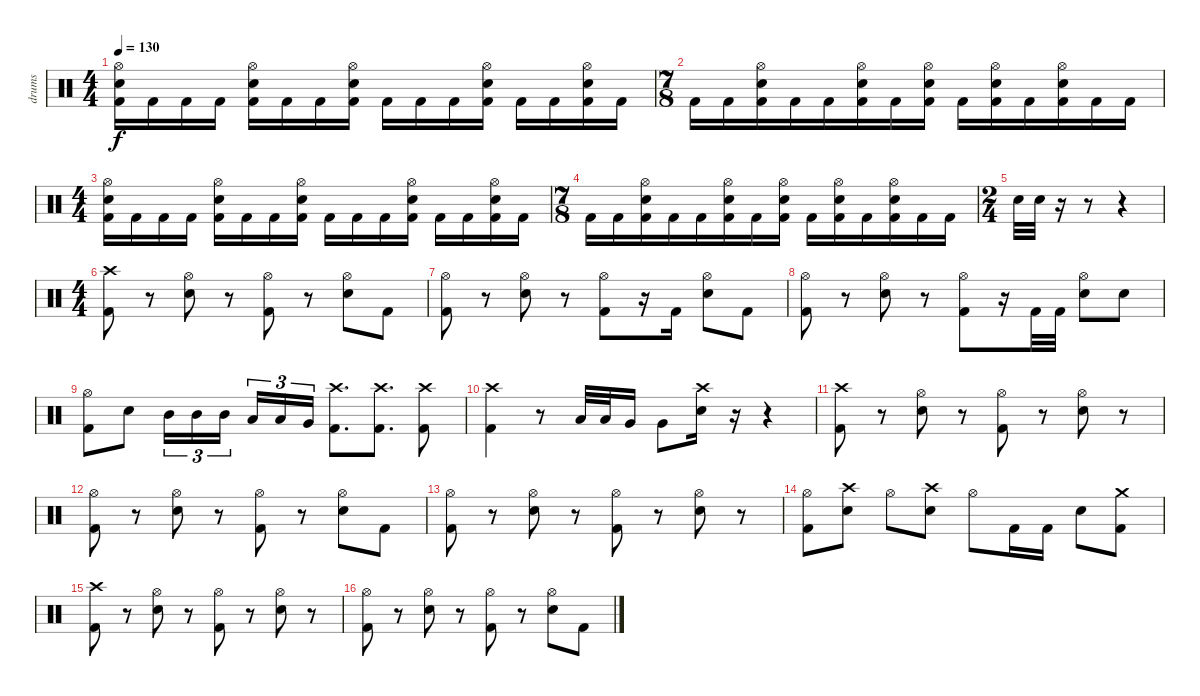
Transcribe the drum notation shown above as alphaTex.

\track ("drums" "drums") {instrument percussion}
\staff {score}
\articulation defaults
\ts (4 4)
\tempo 130
\clef neutral
\ks c
("Hi-Hat (open)" "Snare (hit) 2" "Kick (hit) 2").16{dy f} "Kick (hit) 2".16 "Kick (hit) 2".16 "Kick (hit) 2".16 ("Hi-Hat (open)" "Snare (hit) 2" "Kick (hit) 2").16 "Kick (hit) 2".16 "Kick (hit) 2".16 ("Hi-Hat (open)" "Snare (hit) 2" "Kick (hit) 2").16 "Kick (hit) 2".16 "Kick (hit) 2".16 "Kick (hit) 2".16 ("Hi-Hat (open)" "Snare (hit) 2" "Kick (hit) 2").16 "Kick (hit) 2".16 "Kick (hit) 2".16 ("Hi-Hat (open)" "Snare (hit) 2" "Kick (hit) 2").16 "Kick (hit) 2".16 |
\ts (7 8)
"Kick (hit) 2".16 "Kick (hit) 2".16 ("Hi-Hat (open)" "Snare (hit) 2" "Kick (hit) 2").16 "Kick (hit) 2".16 "Kick (hit) 2".16 ("Hi-Hat (open)" "Kick (hit) 2" "Snare (hit) 2").16 "Kick (hit) 2".16 ("Hi-Hat (open)" "Kick (hit) 2" "Snare (hit) 2").16 "Kick (hit) 2".16 ("Hi-Hat (open)" "Kick (hit) 2" "Snare (hit) 2").16 "Kick (hit) 2".16 ("Hi-Hat (open)" "Kick (hit) 2" "Snare (hit) 2").16 "Kick (hit) 2".16 "Kick (hit) 2".16 |
\ts (4 4)
("Hi-Hat (open)" "Snare (hit) 2" "Kick (hit) 2").16 "Kick (hit) 2".16 "Kick (hit) 2".16 "Kick (hit) 2".16 ("Hi-Hat (open)" "Snare (hit) 2" "Kick (hit) 2").16 "Kick (hit) 2".16 "Kick (hit) 2".16 ("Hi-Hat (open)" "Snare (hit) 2" "Kick (hit) 2").16 "Kick (hit) 2".16 "Kick (hit) 2".16 "Kick (hit) 2".16 ("Hi-Hat (open)" "Snare (hit) 2" "Kick (hit) 2").16 "Kick (hit) 2".16 "Kick (hit) 2".16 ("Hi-Hat (open)" "Snare (hit) 2" "Kick (hit) 2").16 "Kick (hit) 2".16 |
\ts (7 8)
"Kick (hit) 2".16 "Kick (hit) 2".16 ("Hi-Hat (open)" "Snare (hit) 2" "Kick (hit) 2").16 "Kick (hit) 2".16 "Kick (hit) 2".16 ("Hi-Hat (open)" "Kick (hit) 2" "Snare (hit) 2").16 "Kick (hit) 2".16 ("Hi-Hat (open)" "Kick (hit) 2" "Snare (hit) 2").16 "Kick (hit) 2".16 ("Hi-Hat (open)" "Kick (hit) 2" "Snare (hit) 2").16 "Kick (hit) 2".16 ("Hi-Hat (open)" "Kick (hit) 2" "Snare (hit) 2").16 "Kick (hit) 2".16 "Kick (hit) 2".16 |
\ts (2 4)
"Snare (hit) 2".32 "Snare (hit) 2".32 r.16 r.8 r.4 |
\ts (4 4)
("Crash high (hit)" "Kick (hit) 2").8 r.8 ("Hi-Hat (open)" "Snare (hit) 2").8 r.8 ("Hi-Hat (open)" "Kick (hit) 2").8 r.8 ("Hi-Hat (open)" "Snare (hit) 2").8 "Kick (hit) 2".8 |
("Hi-Hat (open)" "Kick (hit) 2").8 r.8 ("Hi-Hat (open)" "Snare (hit) 2").8 r.8 ("Hi-Hat (open)" "Kick (hit) 2").8 r.16 "Kick (hit) 2".16 ("Hi-Hat (open)" "Snare (hit) 2").8 "Kick (hit) 2".8 |
("Hi-Hat (open)" "Kick (hit) 2").8 r.8 ("Hi-Hat (open)" "Snare (hit) 2").8 r.8 ("Hi-Hat (open)" "Kick (hit) 2").8 r.16 "Kick (hit) 2".32 "Kick (hit) 2".32 ("Hi-Hat (open)" "Snare (hit) 2").8 "Snare (hit) 2".8 |
("Hi-Hat (open)" "Kick (hit) 2").8 "Snare (hit) 2".8 "Mid Tom (hit)".16{tu (3 2)} "Mid Tom (hit)".16{tu (3 2)} "Mid Tom (hit)".16{tu (3 2) beam splitsecondary} "Low Tom (hit)".16{tu (3 2)} "Low Tom (hit)".16{tu (3 2)} "Very Low Tom (hit)".16{tu (3 2)} ("Crash high (hit)" "Kick (hit) 2").8{d} ("Crash high (hit)" "Kick (hit) 2").8{d} ("Crash high (hit)" "Kick (hit) 2").8 |
("Crash high (hit)" "Kick (hit) 2").4 r.8 "Low Tom (hit)".32 "Low Tom (hit)".32 "Very Low Tom (hit)".16 "Very Low Tom (hit)".8 ("Crash high (hit)" "Snare (hit) 2").16 r.16 r.4 |
("Crash high (hit)" "Kick (hit) 2").8 r.8 ("Hi-Hat (open)" "Snare (hit) 2").8 r.8 ("Hi-Hat (open)" "Kick (hit) 2").8 r.8 ("Hi-Hat (open)" "Snare (hit) 2").8 r.8 |
("Hi-Hat (open)" "Kick (hit) 2").8 r.8 ("Hi-Hat (open)" "Snare (hit) 2").8 r.8 ("Hi-Hat (open)" "Kick (hit) 2").8 r.8 ("Hi-Hat (open)" "Snare (hit) 2").8 "Kick (hit) 2".8 |
("Hi-Hat (open)" "Kick (hit) 2").8 r.8 ("Hi-Hat (open)" "Snare (hit) 2").8 r.8 ("Hi-Hat (open)" "Kick (hit) 2").8 r.8 ("Hi-Hat (open)" "Snare (hit) 2").8 r.8 |
("Hi-Hat (open)" "Kick (hit) 2").8 ("Crash high (hit)" "Snare (hit) 2").8 "Hi-Hat (open)".8 ("Crash high (hit)" "Snare (hit) 2").8 "Hi-Hat (open)".8 "Kick (hit) 2".16 "Kick (hit) 2".16 "Snare (hit) 2".8 ("Crash medium (hit)" "Kick (hit) 2").8 |
("Crash high (hit)" "Kick (hit) 2").8 r.8 ("Hi-Hat (open)" "Snare (hit) 2").8 r.8 ("Hi-Hat (open)" "Kick (hit) 2").8 r.8 ("Hi-Hat (open)" "Snare (hit) 2").8 r.8 |
("Hi-Hat (open)" "Kick (hit) 2").8 r.8 ("Hi-Hat (open)" "Snare (hit) 2").8 r.8 ("Hi-Hat (open)" "Kick (hit) 2").8 r.8 ("Hi-Hat (open)" "Snare (hit) 2").8 "Kick (hit) 2".8
